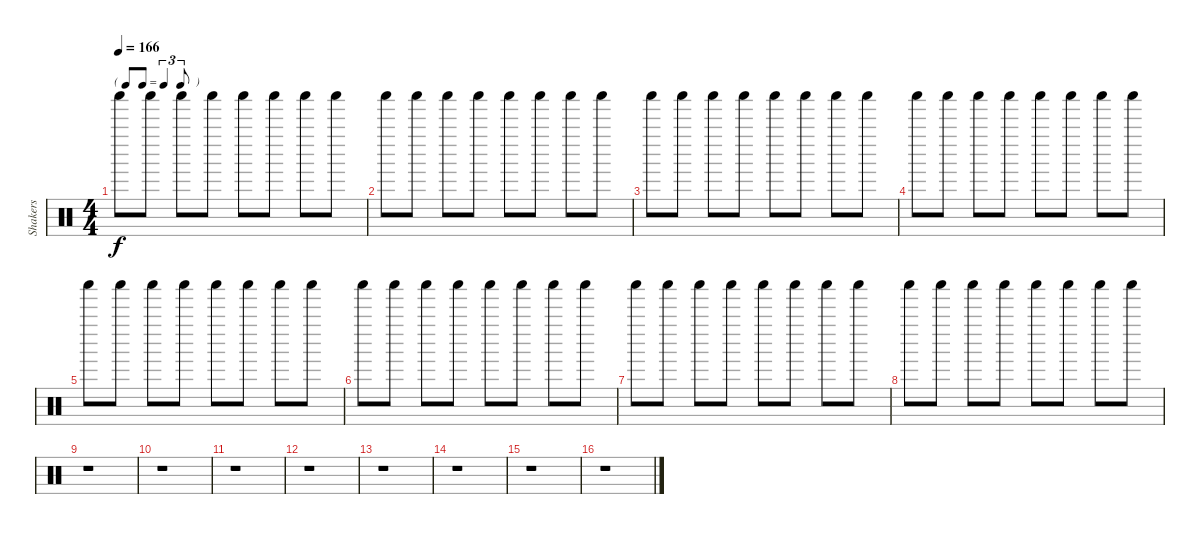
\track ("Shakers" "Shakers") {instrument percussion}
\staff {score}
\articulation defaults
\ts (4 4)
\tf triplet8th
\tempo 166
\clef neutral
\ks c "Shaker (hit)".8{dy f} "Shaker (hit)".8 "Shaker (hit)".8 "Shaker (hit)".8 "Shaker (hit)".8 "Shaker (hit)".8 "Shaker (hit)".8 "Shaker (hit)".8
|
"Shaker (hit)".8 "Shaker (hit)".8 "Shaker (hit)".8 "Shaker (hit)".8 "Shaker (hit)".8 "Shaker (hit)".8 "Shaker (hit)".8 "Shaker (hit)".8 |
"Shaker (hit)".8 "Shaker (hit)".8 "Shaker (hit)".8 "Shaker (hit)".8 "Shaker (hit)".8 "Shaker (hit)".8 "Shaker (hit)".8 "Shaker (hit)".8 |
"Shaker (hit)".8 "Shaker (hit)".8 "Shaker (hit)".8 "Shaker (hit)".8 "Shaker (hit)".8 "Shaker (hit)".8 "Shaker (hit)".8 "Shaker (hit)".8 |
"Shaker (hit)".8 "Shaker (hit)".8 "Shaker (hit)".8 "Shaker (hit)".8 "Shaker (hit)".8 "Shaker (hit)".8 "Shaker (hit)".8 "Shaker (hit)".8 |
"Shaker (hit)".8 "Shaker (hit)".8 "Shaker (hit)".8 "Shaker (hit)".8 "Shaker (hit)".8 "Shaker (hit)".8 "Shaker (hit)".8 "Shaker (hit)".8 |
"Shaker (hit)".8 "Shaker (hit)".8 "Shaker (hit)".8 "Shaker (hit)".8 "Shaker (hit)".8 "Shaker (hit)".8 "Shaker (hit)".8 "Shaker (hit)".8 |
"Shaker (hit)".8 "Shaker (hit)".8 "Shaker (hit)".8 "Shaker (hit)".8 "Shaker (hit)".8 "Shaker (hit)".8 "Shaker (hit)".8 "Shaker (hit)".8 |
r.1 |
r.1 |
r.1 |
r.1 |
r.1 |
r.1 |
r.1 |
r.1
